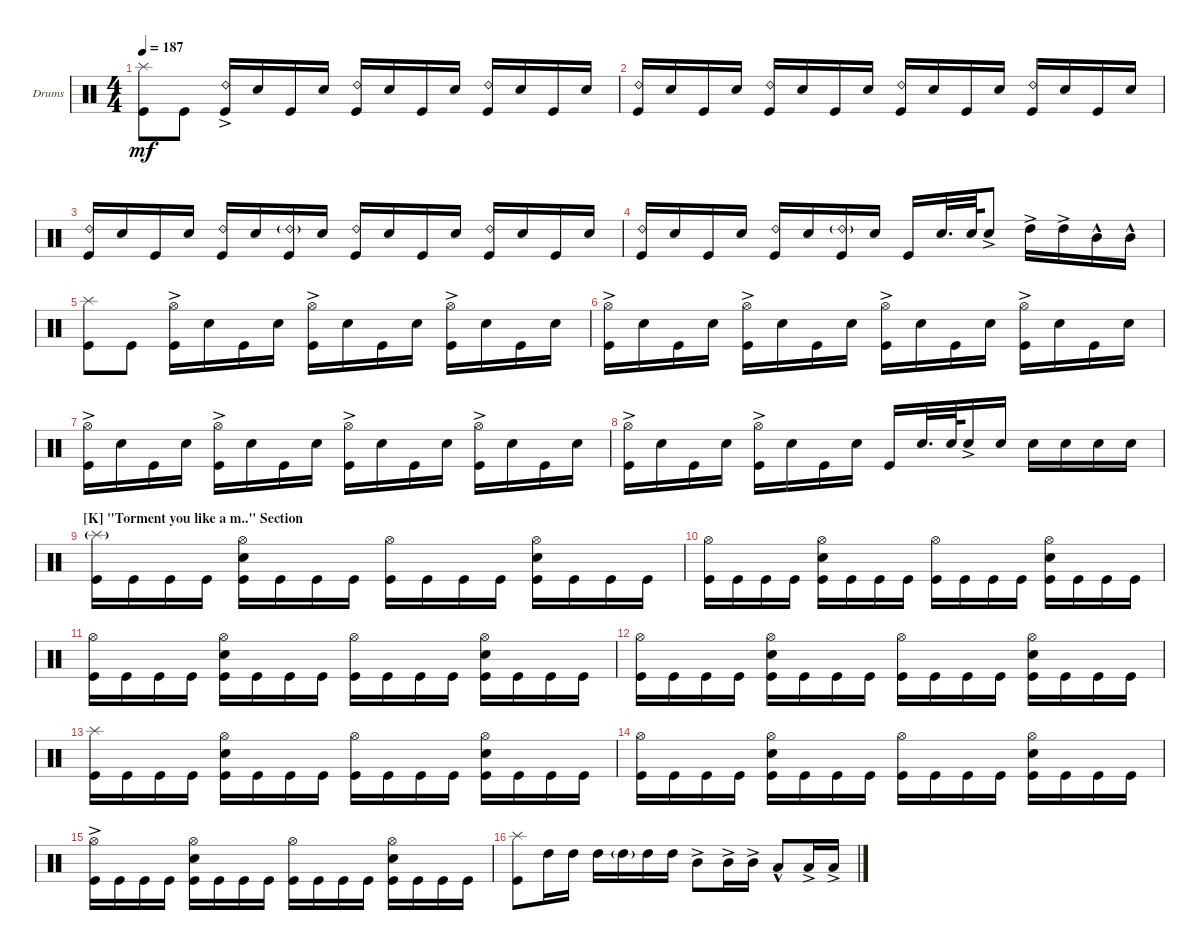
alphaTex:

\defaultSystemsLayout 4
\bracketExtendMode groupsimilarinstruments
\firstSystemTrackNameOrientation horizontal
\otherSystemsTrackNameOrientation horizontal
\track ("Drumkit" "Drums") {instrument percussion}
\staff {score}
\articulation defaults
\ts (4 4)
\tempo 187
\clef neutral
\ks c
("Kick (hit)" "Splash (hit)").8{dy mf} "Kick (hit)".8 ("Kick (hit)" "Ride (bell) 2"{ac}).16 "Snare (hit) 2".16 "Kick (hit)".16 "Snare (hit) 2".16 ("Kick (hit)" "Ride (bell) 2").16 "Snare (hit) 2".16 "Kick (hit)".16 "Snare (hit) 2".16 ("Kick (hit)" "Ride (bell) 2").16 "Snare (hit) 2".16 "Kick (hit)".16 "Snare (hit) 2".16 |
("Kick (hit)" "Ride (bell) 2").16 "Snare (hit) 2".16 "Kick (hit)".16 "Snare (hit) 2".16 ("Kick (hit)" "Ride (bell) 2").16 "Snare (hit) 2".16 "Kick (hit)".16 "Snare (hit) 2".16 ("Kick (hit)" "Ride (bell) 2").16 "Snare (hit) 2".16 "Kick (hit)".16 "Snare (hit) 2".16 ("Kick (hit)" "Ride (bell) 2").16 "Snare (hit) 2".16 "Kick (hit)".16 "Snare (hit) 2".16 |
("Kick (hit)" "Ride (bell) 2").16 "Snare (hit) 2".16 "Kick (hit)".16 "Snare (hit) 2".16 ("Kick (hit)" "Ride (bell) 2").16 "Snare (hit) 2".16 ("Kick (hit)" "Ride (bell) 2"{g}).16 "Snare (hit) 2".16 ("Kick (hit)" "Ride (bell) 2").16 "Snare (hit) 2".16 "Kick (hit)".16 "Snare (hit) 2".16 ("Kick (hit)" "Ride (bell) 2").16 "Snare (hit) 2".16 "Kick (hit)".16 "Snare (hit) 2".16 |
("Kick (hit)" "Ride (bell) 2").16 "Snare (hit) 2".16 "Kick (hit)".16 "Snare (hit) 2".16 ("Kick (hit)" "Ride (bell) 2").16 "Snare (hit) 2".16 ("Kick (hit)" "Ride (bell) 2"{g}).16 "Snare (hit) 2".16 "Kick (hit)".16 "Snare (hit) 2".32{d} "Snare (hit) 2".64 "Snare (hit) 2"{ac}.8 "High Tom (hit)"{ac}.16 "High Tom (hit)"{ac}.16 "Mid Tom (hit)"{hac}.16 "Mid Tom (hit)"{hac}.16 |
("Kick (hit)" "Splash (hit)").8 "Kick (hit)".8 ("Hi-Hat (open)"{ac} "Kick (hit)").16 "Snare (hit) 2".16 "Kick (hit)".16 "Snare (hit) 2".16 ("Hi-Hat (open)"{ac} "Kick (hit)").16 "Snare (hit) 2".16 "Kick (hit)".16 "Snare (hit) 2".16 ("Hi-Hat (open)"{ac} "Kick (hit)").16 "Snare (hit) 2".16 "Kick (hit)".16 "Snare (hit) 2".16 |
("Hi-Hat (open)"{ac} "Kick (hit)").16 "Snare (hit) 2".16 "Kick (hit)".16 "Snare (hit) 2".16 ("Hi-Hat (open)"{ac} "Kick (hit)").16 "Snare (hit) 2".16 "Kick (hit)".16 "Snare (hit) 2".16 ("Hi-Hat (open)"{ac} "Kick (hit)").16 "Snare (hit) 2".16 "Kick (hit)".16 "Snare (hit) 2".16 ("Hi-Hat (open)"{ac} "Kick (hit)").16 "Snare (hit) 2".16 "Kick (hit)".16 "Snare (hit) 2".16 |
("Hi-Hat (open)"{ac} "Kick (hit)").16 "Snare (hit) 2".16 "Kick (hit)".16 "Snare (hit) 2".16 ("Hi-Hat (open)"{ac} "Kick (hit)").16 "Snare (hit) 2".16 "Kick (hit)".16 "Snare (hit) 2".16 ("Hi-Hat (open)"{ac} "Kick (hit)").16 "Snare (hit) 2".16 "Kick (hit)".16 "Snare (hit) 2".16 ("Hi-Hat (open)"{ac} "Kick (hit)").16 "Snare (hit) 2".16 "Kick (hit)".16 "Snare (hit) 2".16 |
("Hi-Hat (open)"{ac} "Kick (hit)").16 "Snare (hit) 2".16 "Kick (hit)".16 "Snare (hit) 2".16 ("Hi-Hat (open)"{ac} "Kick (hit)").16 "Snare (hit) 2".16 "Kick (hit)".16 "Snare (hit) 2".16 "Kick (hit)".16 "Snare (hit) 2".32{d} "Snare (hit) 2".64 "Snare (hit) 2"{ac}.16 "Snare (hit) 2".16 "Snare (hit) 2".16 "Snare (hit) 2".16 "Snare (hit) 2".16 "Snare (hit) 2".16 |
\section ("K" "\"Torment you like a m..\" Section")
("Splash (hit)"{g} "Kick (hit)").16 "Kick (hit)".16 "Kick (hit)".16 "Kick (hit)".16 ("Snare (hit) 2" "Hi-Hat (open)" "Kick (hit)").16 "Kick (hit)".16 "Kick (hit)".16 "Kick (hit)".16 ("Kick (hit)" "Hi-Hat (open)").16 "Kick (hit)".16 "Kick (hit)".16 "Kick (hit)".16 ("Snare (hit) 2" "Hi-Hat (open)" "Kick (hit)").16 "Kick (hit)".16 "Kick (hit)".16 "Kick (hit)".16 |
("Kick (hit)" "Hi-Hat (open)").16 "Kick (hit)".16 "Kick (hit)".16 "Kick (hit)".16 ("Snare (hit) 2" "Hi-Hat (open)" "Kick (hit)").16 "Kick (hit)".16 "Kick (hit)".16 "Kick (hit)".16 ("Kick (hit)" "Hi-Hat (open)").16 "Kick (hit)".16 "Kick (hit)".16 "Kick (hit)".16 ("Snare (hit) 2" "Hi-Hat (open)" "Kick (hit)").16 "Kick (hit)".16 "Kick (hit)".16 "Kick (hit)".16 |
("Kick (hit)" "Hi-Hat (open)").16 "Kick (hit)".16 "Kick (hit)".16 "Kick (hit)".16 ("Snare (hit) 2" "Hi-Hat (open)" "Kick (hit)").16 "Kick (hit)".16 "Kick (hit)".16 "Kick (hit)".16 ("Kick (hit)" "Hi-Hat (open)").16 "Kick (hit)".16 "Kick (hit)".16 "Kick (hit)".16 ("Snare (hit) 2" "Hi-Hat (open)" "Kick (hit)").16 "Kick (hit)".16 "Kick (hit)".16 "Kick (hit)".16 |
("Kick (hit)" "Hi-Hat (open)").16 "Kick (hit)".16 "Kick (hit)".16 "Kick (hit)".16 ("Snare (hit) 2" "Hi-Hat (open)" "Kick (hit)").16 "Kick (hit)".16 "Kick (hit)".16 "Kick (hit)".16 ("Kick (hit)" "Hi-Hat (open)").16 "Kick (hit)".16 "Kick (hit)".16 "Kick (hit)".16 ("Snare (hit) 2" "Hi-Hat (open)" "Kick (hit)").16 "Kick (hit)".16 "Kick (hit)".16 "Kick (hit)".16 |
("Splash (hit)" "Kick (hit)").16 "Kick (hit)".16 "Kick (hit)".16 "Kick (hit)".16 ("Snare (hit) 2" "Hi-Hat (open)" "Kick (hit)").16 "Kick (hit)".16 "Kick (hit)".16 "Kick (hit)".16 ("Kick (hit)" "Hi-Hat (open)").16 "Kick (hit)".16 "Kick (hit)".16 "Kick (hit)".16 ("Snare (hit) 2" "Hi-Hat (open)" "Kick (hit)").16 "Kick (hit)".16 "Kick (hit)".16 "Kick (hit)".16 |
("Kick (hit)" "Hi-Hat (open)").16 "Kick (hit)".16 "Kick (hit)".16 "Kick (hit)".16 ("Snare (hit) 2" "Hi-Hat (open)" "Kick (hit)").16 "Kick (hit)".16 "Kick (hit)".16 "Kick (hit)".16 ("Kick (hit)" "Hi-Hat (open)").16 "Kick (hit)".16 "Kick (hit)".16 "Kick (hit)".16 ("Snare (hit) 2" "Hi-Hat (open)" "Kick (hit)").16 "Kick (hit)".16 "Kick (hit)".16 "Kick (hit)".16 |
("Kick (hit)" "Hi-Hat (open)"{ac}).16 "Kick (hit)".16 "Kick (hit)".16 "Kick (hit)".16 ("Snare (hit) 2" "Hi-Hat (open)" "Kick (hit)").16 "Kick (hit)".16 "Kick (hit)".16 "Kick (hit)".16 ("Kick (hit)" "Hi-Hat (open)").16 "Kick (hit)".16 "Kick (hit)".16 "Kick (hit)".16 ("Snare (hit) 2" "Hi-Hat (open)" "Kick (hit)").16 "Kick (hit)".16 "Kick (hit)".16 "Kick (hit)".16 |
("Kick (hit)" "Splash (hit)").8 "High Tom (hit)".16 "High Tom (hit)".16 "High Tom (hit)".16 "High Tom (hit)"{g}.16 "High Tom (hit)".16 "High Tom (hit)".16 "Mid Tom (hit)"{ac}.8 "Mid Tom (hit)"{ac}.16 "Mid Tom (hit)"{ac}.16 "Low Tom (hit)"{hac}.8 "Low Tom (hit)"{ac}.16 "Low Tom (hit)"{ac}.16
